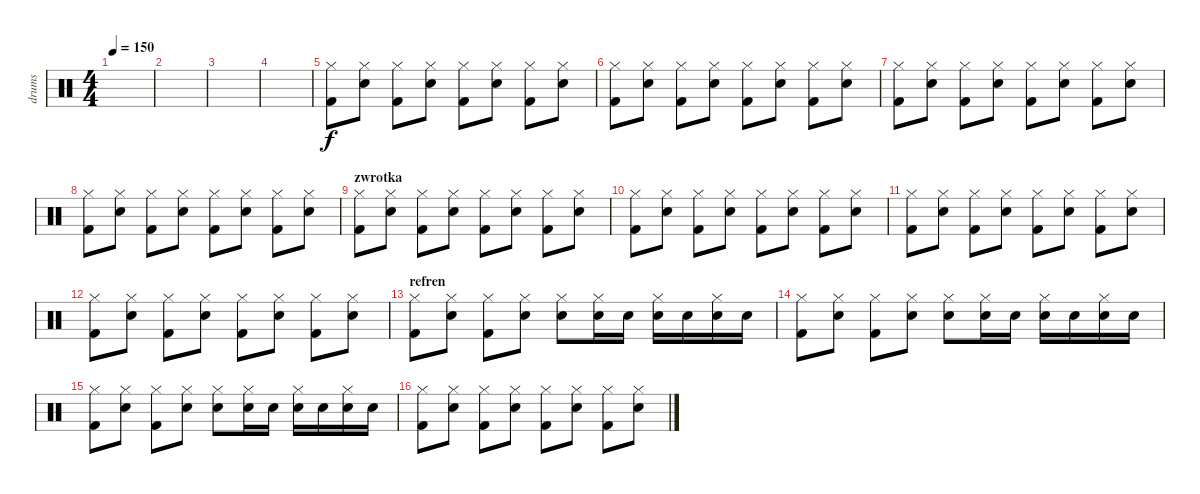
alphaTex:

\track ("drums" "drums") {instrument percussion}
\staff {score}
\articulation defaults
\ts (4 4)
\tempo 150
\clef neutral
\ks c
|
|
|
|
("Hi-Hat (closed)" "Kick (hit) 2").8 ("Hi-Hat (closed)" "Snare (hit) 2").8 ("Hi-Hat (closed)" "Kick (hit) 2").8 ("Hi-Hat (closed)" "Snare (hit) 2").8 ("Hi-Hat (closed)" "Kick (hit) 2").8 ("Hi-Hat (closed)" "Snare (hit) 2").8 ("Hi-Hat (closed)" "Kick (hit) 2").8 ("Hi-Hat (closed)" "Snare (hit) 2").8 |
("Hi-Hat (closed)" "Kick (hit) 2").8 ("Hi-Hat (closed)" "Snare (hit) 2").8 ("Hi-Hat (closed)" "Kick (hit) 2").8 ("Hi-Hat (closed)" "Snare (hit) 2").8 ("Hi-Hat (closed)" "Kick (hit) 2").8 ("Hi-Hat (closed)" "Snare (hit) 2").8 ("Hi-Hat (closed)" "Kick (hit) 2").8 ("Hi-Hat (closed)" "Snare (hit) 2").8 |
("Hi-Hat (closed)" "Kick (hit) 2").8 ("Hi-Hat (closed)" "Snare (hit) 2").8 ("Hi-Hat (closed)" "Kick (hit) 2").8 ("Hi-Hat (closed)" "Snare (hit) 2").8 ("Hi-Hat (closed)" "Kick (hit) 2").8 ("Hi-Hat (closed)" "Snare (hit) 2").8 ("Hi-Hat (closed)" "Kick (hit) 2").8 ("Hi-Hat (closed)" "Snare (hit) 2").8 |
("Hi-Hat (closed)" "Kick (hit) 2").8 ("Hi-Hat (closed)" "Snare (hit) 2").8 ("Hi-Hat (closed)" "Kick (hit) 2").8 ("Hi-Hat (closed)" "Snare (hit) 2").8 ("Hi-Hat (closed)" "Kick (hit) 2").8 ("Hi-Hat (closed)" "Snare (hit) 2").8 ("Hi-Hat (closed)" "Kick (hit) 2").8 ("Hi-Hat (closed)" "Snare (hit) 2").8 |
\section ("" "zwrotka")
("Hi-Hat (closed)" "Kick (hit) 2").8 ("Hi-Hat (closed)" "Snare (hit) 2").8 ("Hi-Hat (closed)" "Kick (hit) 2").8 ("Hi-Hat (closed)" "Snare (hit) 2").8 ("Hi-Hat (closed)" "Kick (hit) 2").8 ("Hi-Hat (closed)" "Snare (hit) 2").8 ("Hi-Hat (closed)" "Kick (hit) 2").8 ("Hi-Hat (closed)" "Snare (hit) 2").8 |
("Hi-Hat (closed)" "Kick (hit) 2").8 ("Hi-Hat (closed)" "Snare (hit) 2").8 ("Hi-Hat (closed)" "Kick (hit) 2").8 ("Hi-Hat (closed)" "Snare (hit) 2").8 ("Hi-Hat (closed)" "Kick (hit) 2").8 ("Hi-Hat (closed)" "Snare (hit) 2").8 ("Hi-Hat (closed)" "Kick (hit) 2").8 ("Hi-Hat (closed)" "Snare (hit) 2").8 |
("Hi-Hat (closed)" "Kick (hit) 2").8 ("Hi-Hat (closed)" "Snare (hit) 2").8 ("Hi-Hat (closed)" "Kick (hit) 2").8 ("Hi-Hat (closed)" "Snare (hit) 2").8 ("Hi-Hat (closed)" "Kick (hit) 2").8 ("Hi-Hat (closed)" "Snare (hit) 2").8 ("Hi-Hat (closed)" "Kick (hit) 2").8 ("Hi-Hat (closed)" "Snare (hit) 2").8 |
("Hi-Hat (closed)" "Kick (hit) 2").8 ("Hi-Hat (closed)" "Snare (hit) 2").8 ("Hi-Hat (closed)" "Kick (hit) 2").8 ("Hi-Hat (closed)" "Snare (hit) 2").8 ("Hi-Hat (closed)" "Kick (hit) 2").8 ("Hi-Hat (closed)" "Snare (hit) 2").8 ("Hi-Hat (closed)" "Kick (hit) 2").8 ("Hi-Hat (closed)" "Snare (hit) 2").8 |
\section ("" "refren")
("Hi-Hat (closed)" "Kick (hit) 2").8 ("Hi-Hat (closed)" "Snare (hit) 2").8 ("Hi-Hat (closed)" "Kick (hit) 2").8 ("Hi-Hat (closed)" "Snare (hit) 2").8 ("Hi-Hat (closed)" "Snare (hit) 2").8 ("Hi-Hat (closed)" "Snare (hit) 2").16 "Snare (hit) 2".16 ("Hi-Hat (closed)" "Snare (hit) 2").16 "Snare (hit) 2".16 ("Hi-Hat (closed)" "Snare (hit) 2").16 "Snare (hit) 2".16 |
("Hi-Hat (closed)" "Kick (hit) 2").8 ("Hi-Hat (closed)" "Snare (hit) 2").8 ("Hi-Hat (closed)" "Kick (hit) 2").8 ("Hi-Hat (closed)" "Snare (hit) 2").8 ("Hi-Hat (closed)" "Snare (hit) 2").8 ("Hi-Hat (closed)" "Snare (hit) 2").16 "Snare (hit) 2".16 ("Hi-Hat (closed)" "Snare (hit) 2").16 "Snare (hit) 2".16 ("Hi-Hat (closed)" "Snare (hit) 2").16 "Snare (hit) 2".16 |
("Hi-Hat (closed)" "Kick (hit) 2").8 ("Hi-Hat (closed)" "Snare (hit) 2").8 ("Hi-Hat (closed)" "Kick (hit) 2").8 ("Hi-Hat (closed)" "Snare (hit) 2").8 ("Hi-Hat (closed)" "Snare (hit) 2").8 ("Hi-Hat (closed)" "Snare (hit) 2").16 "Snare (hit) 2".16 ("Hi-Hat (closed)" "Snare (hit) 2").16 "Snare (hit) 2".16 ("Hi-Hat (closed)" "Snare (hit) 2").16 "Snare (hit) 2".16 |
("Hi-Hat (closed)" "Kick (hit) 2").8 ("Hi-Hat (closed)" "Snare (hit) 2").8 ("Hi-Hat (closed)" "Kick (hit) 2").8 ("Hi-Hat (closed)" "Snare (hit) 2").8 ("Hi-Hat (closed)" "Kick (hit) 2").8 ("Hi-Hat (closed)" "Snare (hit) 2").8 ("Hi-Hat (closed)" "Kick (hit) 2").8 ("Hi-Hat (closed)" "Snare (hit) 2").8
